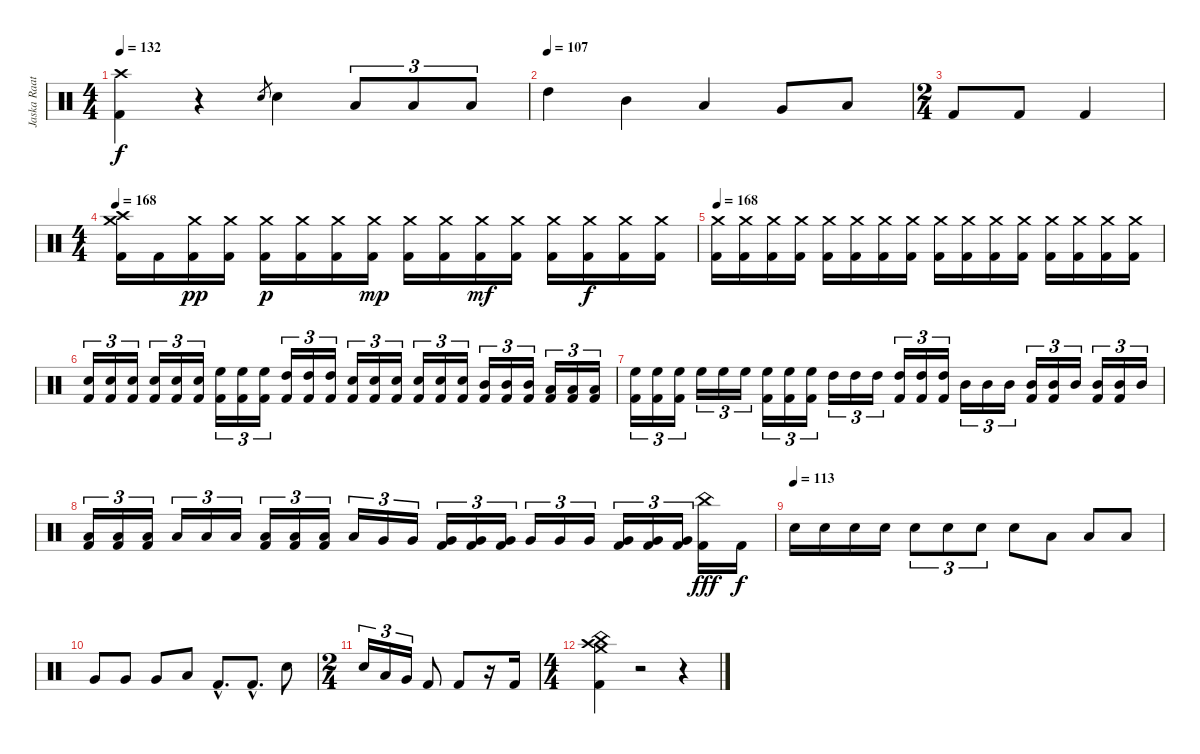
\track ("Jaska Raatikainen" "Jaska Raat") {instrument percussion}
\staff {score}
\articulation defaults
\ts (4 4)
\tempo 132
\clef neutral
\ks c
("Crash high (hit)" "Kick (hit) 2").4{dy f} r.4 "Electric Snare (hit)".8{gr} "Electric Snare (hit)".4 "Low Tom (hit)".8{tu (3 2)} "Low Tom (hit)".8{tu (3 2)} "Low Tom (hit)".8{tu (3 2)} |
\tempo (107)
"High Tom (hit)".4 "Mid Tom (hit)".4 "Low Tom (hit)".4 "Very Low Tom (hit)".8 "Low Floor Tom (hit)".8 |
\ts (2 4)
"Kick (hit) 2".8 "Kick (hit) 2".8 "Kick (hit) 2".4 |
\ts (4 4)
\tempo 168
("Crash medium (hit)" "Crash high (hit)" "Kick (hit) 2").16 "Kick (hit) 2".16 ("Crash medium (hit)" "Kick (hit) 2").16{dy pp} ("Crash medium (hit)" "Kick (hit) 2").16 ("Crash medium (hit)" "Kick (hit) 2").16{dy p} ("Crash medium (hit)" "Kick (hit) 2").16 ("Crash medium (hit)" "Kick (hit) 2").16 ("Crash medium (hit)" "Kick (hit) 2").16{dy mp} ("Crash medium (hit)" "Kick (hit) 2").16 ("Crash medium (hit)" "Kick (hit) 2").16 ("Crash medium (hit)" "Kick (hit) 2").16{dy mf} ("Crash medium (hit)" "Kick (hit) 2").16 ("Crash medium (hit)" "Kick (hit) 2").16 ("Crash medium (hit)" "Kick (hit) 2").16{dy f} ("Crash medium (hit)" "Kick (hit) 2").16 ("Crash medium (hit)" "Kick (hit) 2").16 |
\tempo 168
("Crash medium (hit)" "Kick (hit) 2").16 ("Crash medium (hit)" "Kick (hit) 2").16 ("Crash medium (hit)" "Kick (hit) 2").16 ("Crash medium (hit)" "Kick (hit) 2").16 ("Crash medium (hit)" "Kick (hit) 2").16 ("Crash medium (hit)" "Kick (hit) 2").16 ("Crash medium (hit)" "Kick (hit) 2").16 ("Crash medium (hit)" "Kick (hit) 2").16 ("Crash medium (hit)" "Kick (hit) 2").16 ("Crash medium (hit)" "Kick (hit) 2").16 ("Crash medium (hit)" "Kick (hit) 2").16 ("Crash medium (hit)" "Kick (hit) 2").16 ("Crash medium (hit)" "Kick (hit) 2").16 ("Crash medium (hit)" "Kick (hit) 2").16 ("Crash medium (hit)" "Kick (hit) 2").16 ("Crash medium (hit)" "Kick (hit) 2").16 |
("Electric Snare (hit)" "Kick (hit) 2").16{tu (3 2)} ("Electric Snare (hit)" "Kick (hit) 2").16{tu (3 2)} ("Electric Snare (hit)" "Kick (hit) 2").16{tu (3 2)} ("Electric Snare (hit)" "Kick (hit) 2").16{tu (3 2)} ("Electric Snare (hit)" "Kick (hit) 2").16{tu (3 2)} ("Electric Snare (hit)" "Kick (hit) 2").16{tu (3 2)} ("High Floor Tom (hit)" "Kick (hit) 2").16{tu (3 2)} ("High Floor Tom (hit)" "Kick (hit) 2").16{tu (3 2)} ("High Floor Tom (hit)" "Kick (hit) 2").16{tu (3 2)} ("High Tom (hit)" "Kick (hit) 2").16{tu (3 2)} ("High Tom (hit)" "Kick (hit) 2").16{tu (3 2)} ("High Tom (hit)" "Kick (hit) 2").16{tu (3 2)} ("Electric Snare (hit)" "Kick (hit) 2").16{tu (3 2)} ("Electric Snare (hit)" "Kick (hit) 2").16{tu (3 2)} ("Electric Snare (hit)" "Kick (hit) 2").16{tu (3 2)} ("Electric Snare (hit)" "Kick (hit) 2").16{tu (3 2)} ("Electric Snare (hit)" "Kick (hit) 2").16{tu (3 2)} ("Electric Snare (hit)" "Kick (hit) 2").16{tu (3 2)} ("Mid Tom (hit)" "Kick (hit) 2").16{tu (3 2)} ("Mid Tom (hit)" "Kick (hit) 2").16{tu (3 2)} ("Mid Tom (hit)" "Kick (hit) 2").16{tu (3 2)} ("Low Tom (hit)" "Kick (hit) 2").16{tu (3 2)} ("Low Tom (hit)" "Kick (hit) 2").16{tu (3 2)} ("Low Tom (hit)" "Kick (hit) 2").16{tu (3 2)} |
("High Floor Tom (hit)" "Kick (hit) 2").16{tu (3 2)} ("High Floor Tom (hit)" "Kick (hit) 2").16{tu (3 2)} ("High Floor Tom (hit)" "Kick (hit) 2").16{tu (3 2)} "High Floor Tom (hit)".16{tu (3 2)} "High Floor Tom (hit)".16{tu (3 2)} "High Floor Tom (hit)".16{tu (3 2)} ("High Floor Tom (hit)" "Kick (hit) 2").16{tu (3 2)} ("High Floor Tom (hit)" "Kick (hit) 2").16{tu (3 2)} ("High Floor Tom (hit)" "Kick (hit) 2").16{tu (3 2)} "High Tom (hit)".16{tu (3 2)} "High Tom (hit)".16{tu (3 2)} "High Tom (hit)".16{tu (3 2)} ("High Tom (hit)" "Kick (hit) 2").16{tu (3 2)} ("High Tom (hit)" "Kick (hit) 2").16{tu (3 2)} ("High Tom (hit)" "Kick (hit) 2").16{tu (3 2)} "Mid Tom (hit)".16{tu (3 2)} "Mid Tom (hit)".16{tu (3 2)} "Mid Tom (hit)".16{tu (3 2)} ("Mid Tom (hit)" "Kick (hit) 2").16{tu (3 2)} ("Mid Tom (hit)" "Kick (hit) 2").16{tu (3 2)} "Mid Tom (hit)".16{tu (3 2)} ("Mid Tom (hit)" "Kick (hit) 2").16{tu (3 2)} ("Mid Tom (hit)" "Kick (hit) 2").16{tu (3 2)} "Mid Tom (hit)".16{tu (3 2)} |
("Low Tom (hit)" "Kick (hit) 2").16{tu (3 2)} ("Low Tom (hit)" "Kick (hit) 2").16{tu (3 2)} ("Low Tom (hit)" "Kick (hit) 2").16{tu (3 2)} "Low Tom (hit)".16{tu (3 2)} "Low Tom (hit)".16{tu (3 2)} "Low Tom (hit)".16{tu (3 2)} ("Low Tom (hit)" "Kick (hit) 2").16{tu (3 2)} ("Low Tom (hit)" "Kick (hit) 2").16{tu (3 2)} ("Low Tom (hit)" "Kick (hit) 2").16{tu (3 2)} "Low Tom (hit)".16{tu (3 2)} "Very Low Tom (hit)".16{tu (3 2)} "Very Low Tom (hit)".16{tu (3 2)} ("Very Low Tom (hit)" "Kick (hit) 2").16{tu (3 2)} ("Very Low Tom (hit)" "Kick (hit) 2").16{tu (3 2)} ("Very Low Tom (hit)" "Kick (hit) 2").16{tu (3 2)} "Very Low Tom (hit)".16{tu (3 2)} "Very Low Tom (hit)".16{tu (3 2)} "Very Low Tom (hit)".16{tu (3 2)} ("Very Low Tom (hit)" "Kick (hit) 2").16{tu (3 2)} ("Very Low Tom (hit)" "Kick (hit) 2").16{tu (3 2)} ("Very Low Tom (hit)" "Kick (hit) 2").16{tu (3 2)} ("China (hit)" "Kick (hit) 2").16{dy fff} "Kick (hit) 2".16{dy f} |
\tempo (113)
"Electric Snare (hit)".16 "Electric Snare (hit)".16 "Electric Snare (hit)".16 "Electric Snare (hit)".16 "Electric Snare (hit)".8{tu (3 2)} "Electric Snare (hit)".8{tu (3 2)} "Electric Snare (hit)".8{tu (3 2)} "Electric Snare (hit)".8 "Low Tom (hit)".8 "Low Tom (hit)".8 "Low Tom (hit)".8 |
"Very Low Tom (hit)".8 "Very Low Tom (hit)".8 "Very Low Tom (hit)".8 "Low Floor Tom (hit)".8 "Kick (hit) 2"{hac}.8{d} "Kick (hit) 2"{hac}.8{d} "Electric Snare (hit)".8 |
\ts (2 4)
"Electric Snare (hit)".16{tu (3 2)} "Low Tom (hit)".16{tu (3 2)} "Very Low Tom (hit)".16{tu (3 2)} "Kick (hit) 2".8 "Kick (hit) 2".8 r.16 "Kick (hit) 2".16 |
\ts (4 4)
("Crash medium (hit)" "Crash high (hit)" "China (hit)" "Kick (hit) 2").4 r.2 r.4
